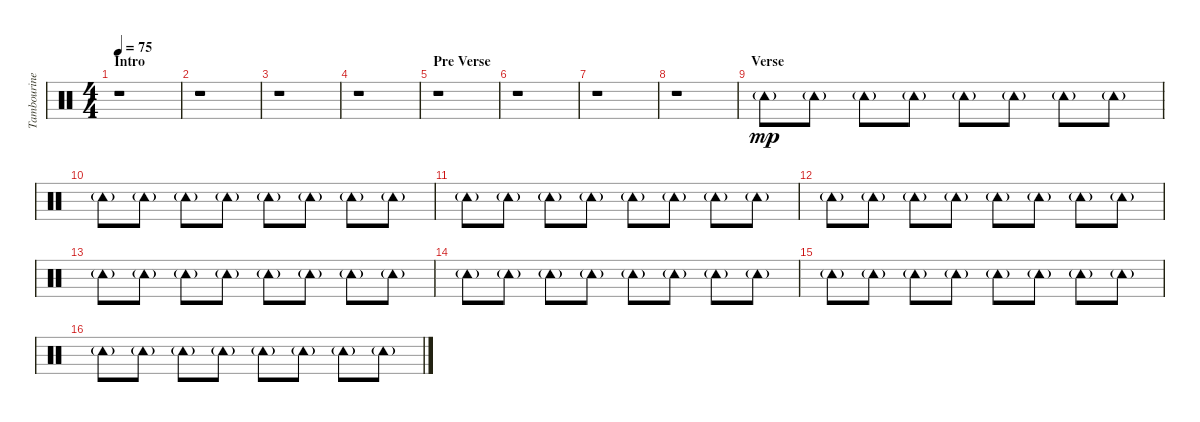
\track ("Tambourine" "Tambourine") {instrument percussion}
\staff {score}
\articulation defaults
\ts (4 4)
\section ("" "Intro")
\tempo 75
\clef neutral
\ks c
r.1{dy mp} |
r.1 |
r.1 |
r.1 |
\section ("" "Pre Verse")
r.1 |
r.1 |
r.1 |
r.1 |
\section ("" "Verse")
"Tambourine (hit)"{g}.8 "Tambourine (hit)"{g}.8 "Tambourine (hit)"{g}.8 "Tambourine (hit)"{g}.8 "Tambourine (hit)"{g}.8 "Tambourine (hit)"{g}.8 "Tambourine (hit)"{g}.8 "Tambourine (hit)"{g}.8 |
"Tambourine (hit)"{g}.8 "Tambourine (hit)"{g}.8 "Tambourine (hit)"{g}.8 "Tambourine (hit)"{g}.8 "Tambourine (hit)"{g}.8 "Tambourine (hit)"{g}.8 "Tambourine (hit)"{g}.8 "Tambourine (hit)"{g}.8 |
"Tambourine (hit)"{g}.8 "Tambourine (hit)"{g}.8 "Tambourine (hit)"{g}.8 "Tambourine (hit)"{g}.8 "Tambourine (hit)"{g}.8 "Tambourine (hit)"{g}.8 "Tambourine (hit)"{g}.8 "Tambourine (hit)"{g}.8 |
"Tambourine (hit)"{g}.8 "Tambourine (hit)"{g}.8 "Tambourine (hit)"{g}.8 "Tambourine (hit)"{g}.8 "Tambourine (hit)"{g}.8 "Tambourine (hit)"{g}.8 "Tambourine (hit)"{g}.8 "Tambourine (hit)"{g}.8 |
"Tambourine (hit)"{g}.8 "Tambourine (hit)"{g}.8 "Tambourine (hit)"{g}.8 "Tambourine (hit)"{g}.8 "Tambourine (hit)"{g}.8 "Tambourine (hit)"{g}.8 "Tambourine (hit)"{g}.8 "Tambourine (hit)"{g}.8 |
"Tambourine (hit)"{g}.8 "Tambourine (hit)"{g}.8 "Tambourine (hit)"{g}.8 "Tambourine (hit)"{g}.8 "Tambourine (hit)"{g}.8 "Tambourine (hit)"{g}.8 "Tambourine (hit)"{g}.8 "Tambourine (hit)"{g}.8 |
"Tambourine (hit)"{g}.8 "Tambourine (hit)"{g}.8 "Tambourine (hit)"{g}.8 "Tambourine (hit)"{g}.8 "Tambourine (hit)"{g}.8 "Tambourine (hit)"{g}.8 "Tambourine (hit)"{g}.8 "Tambourine (hit)"{g}.8 |
"Tambourine (hit)"{g}.8 "Tambourine (hit)"{g}.8 "Tambourine (hit)"{g}.8 "Tambourine (hit)"{g}.8 "Tambourine (hit)"{g}.8 "Tambourine (hit)"{g}.8 "Tambourine (hit)"{g}.8 "Tambourine (hit)"{g}.8
